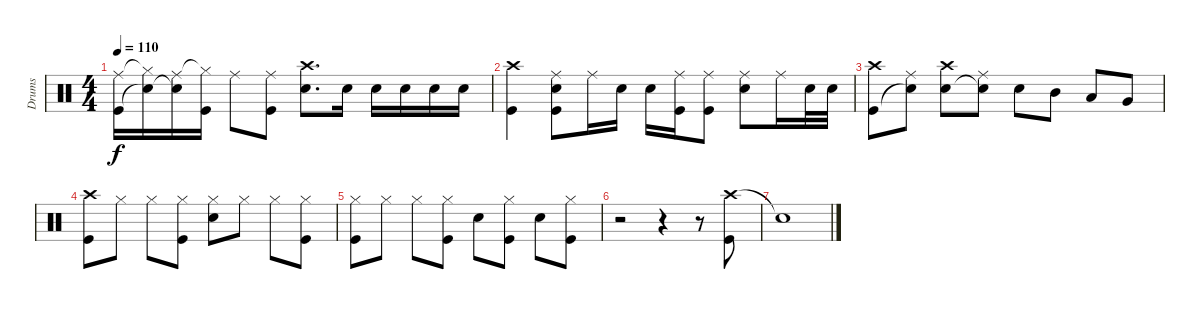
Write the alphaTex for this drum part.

\track ("Drums" "Drums") {instrument percussion}
\staff {score}
\articulation defaults
\ts (4 4)
\tempo 110
\clef neutral
\ks c
("Ride (middle)" "Kick (hit)").16{dy f} ("Hi-Hat (closed)"{t} "Snare (hit)"{t}).16 ("Ride (middle)" "Snare (hit)"{t}).16 ("Hi-Hat (closed)"{t} "Kick (hit)").16 "Ride (middle)".8 ("Ride (middle)" "Kick (hit)").8 ("Crash high (hit)" "Snare (hit) 2").8{d} "Snare (hit) 2".16 "Snare (hit) 2".16 "Snare (hit) 2".16 "Snare (hit) 2".16 "Snare (hit) 2".16 |
("Crash high (hit)" "Kick (hit)").4 ("Ride (middle)" "Snare (hit) 2" "Kick (hit)").8 "Ride (middle)".16 "Snare (hit) 2".16 "Snare (hit) 2".16 ("Ride (middle)" "Kick (hit)").16 ("Ride (middle)" "Kick (hit)").8 ("Ride (middle)" "Snare (hit) 2").8 "Ride (middle)".16 "Snare (hit) 2".32 "Snare (hit) 2".32 |
("Crash high (hit)" "Kick (hit)").8 ("Ride (middle)" "Snare (hit)"{t}).8 ("Crash high (hit)" "Snare (hit) 2").8 ("Ride (middle)" "Snare (hit)"{t}).8 "Snare (hit) 2".8 "Mid Tom (hit)".8 "Low Tom (hit)".8 "Very Low Tom (hit)".8 |
("Crash high (hit)" "Kick (hit)").8 "Hi-Hat (closed)".8 "Hi-Hat (closed)".8 ("Hi-Hat (closed)" "Kick (hit)").8 ("Hi-Hat (closed)" "Snare (hit) 2").8 "Hi-Hat (closed)".8 "Hi-Hat (closed)".8 ("Hi-Hat (closed)" "Kick (hit)").8 |
("Hi-Hat (closed)" "Kick (hit)").8 "Hi-Hat (closed)".8 "Hi-Hat (closed)".8 ("Hi-Hat (closed)" "Kick (hit)").8 "Snare (hit) 2".8 ("Hi-Hat (closed)" "Kick (hit)").8 "Snare (hit) 2".8 ("Hi-Hat (closed)" "Kick (hit)").8 |
r.2 r.4 r.8 ("Crash high (hit)" "Kick (hit)").8 |
"Snare (hit)"{t}.1
